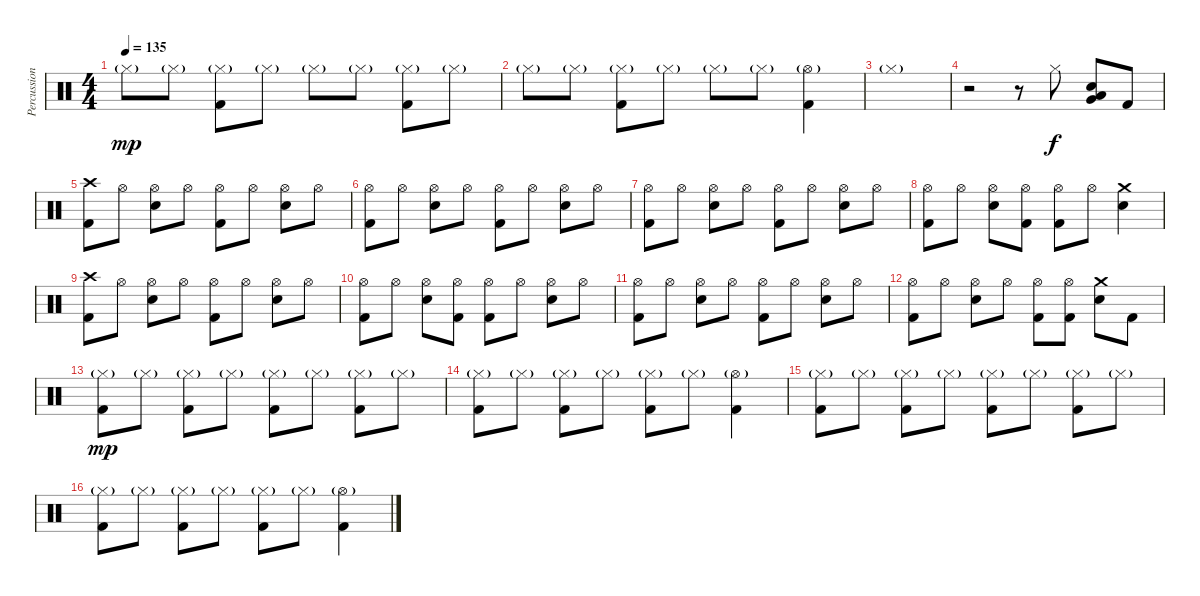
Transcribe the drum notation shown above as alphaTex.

\track ("Percussion" "Percussion") {instrument percussion}
\staff {score}
\articulation defaults
\ts (4 4)
\tempo 135
\clef neutral
\ks c "Hi-Hat (closed)"{g}.8{dy mp} "Hi-Hat (closed)"{g}.8
("Hi-Hat (closed)"{g} "Kick (hit) 2").8 "Hi-Hat (closed)"{g}.8 "Hi-Hat (closed)"{g}.8 "Hi-Hat (closed)"{g}.8 ("Hi-Hat (closed)"{g} "Kick (hit) 2").8 "Hi-Hat (closed)"{g}.8 |
"Hi-Hat (closed)"{g}.8 "Hi-Hat (closed)"{g}.8 ("Hi-Hat (closed)"{g} "Kick (hit) 2").8 "Hi-Hat (closed)"{g}.8 "Hi-Hat (closed)"{g}.8 "Hi-Hat (closed)"{g}.8 ("Hi-Hat (open)"{g} "Kick (hit) 2").4 |
"Hi-Hat (closed)"{g}.1 |
r.2 r.8 "Hi-Hat (closed)".8{dy f} ("Electric Snare (hit)" "Very Low Tom (hit)" "Low Tom (hit)").8 "Kick (hit) 2".8 |
("Crash high (hit)" "Kick (hit) 2").8 "Hi-Hat (open)".8 ("Hi-Hat (open)" "Electric Snare (hit)").8 "Hi-Hat (open)".8 ("Hi-Hat (open)" "Kick (hit) 2").8 "Hi-Hat (open)".8 ("Hi-Hat (open)" "Electric Snare (hit)").8 "Hi-Hat (open)".8 |
("Hi-Hat (open)" "Kick (hit) 2").8 "Hi-Hat (open)".8 ("Hi-Hat (open)" "Electric Snare (hit)").8 "Hi-Hat (open)".8 ("Hi-Hat (open)" "Kick (hit) 2").8 "Hi-Hat (open)".8 ("Hi-Hat (open)" "Electric Snare (hit)").8 "Hi-Hat (open)".8 |
("Hi-Hat (open)" "Kick (hit) 2").8 "Hi-Hat (open)".8 ("Hi-Hat (open)" "Electric Snare (hit)").8 "Hi-Hat (open)".8 ("Hi-Hat (open)" "Kick (hit) 2").8 "Hi-Hat (open)".8 ("Hi-Hat (open)" "Electric Snare (hit)").8 "Hi-Hat (open)".8 |
("Hi-Hat (open)" "Kick (hit) 2").8 "Hi-Hat (open)".8 ("Hi-Hat (open)" "Electric Snare (hit)").8 ("Hi-Hat (open)" "Kick (hit) 2").8 ("Hi-Hat (open)" "Kick (hit) 2").8 "Hi-Hat (open)".8 ("Crash medium (hit)" "Electric Snare (hit)").4 |
("Crash high (hit)" "Kick (hit) 2").8 "Hi-Hat (open)".8 ("Hi-Hat (open)" "Electric Snare (hit)").8 "Hi-Hat (open)".8 ("Hi-Hat (open)" "Kick (hit) 2").8 "Hi-Hat (open)".8 ("Hi-Hat (open)" "Electric Snare (hit)").8 "Hi-Hat (open)".8 |
("Hi-Hat (open)" "Kick (hit) 2").8 "Hi-Hat (open)".8 ("Hi-Hat (open)" "Electric Snare (hit)").8 ("Hi-Hat (open)" "Kick (hit) 2").8 ("Hi-Hat (open)" "Kick (hit) 2").8 "Hi-Hat (open)".8 ("Hi-Hat (open)" "Electric Snare (hit)").8 "Hi-Hat (open)".8 |
("Hi-Hat (open)" "Kick (hit) 2").8 "Hi-Hat (open)".8 ("Hi-Hat (open)" "Electric Snare (hit)").8 "Hi-Hat (open)".8 ("Hi-Hat (open)" "Kick (hit) 2").8 "Hi-Hat (open)".8 ("Hi-Hat (open)" "Electric Snare (hit)").8 "Hi-Hat (open)".8 |
("Hi-Hat (open)" "Kick (hit) 2").8 "Hi-Hat (open)".8 ("Hi-Hat (open)" "Electric Snare (hit)").8 "Hi-Hat (open)".8 ("Hi-Hat (open)" "Kick (hit) 2").8 ("Hi-Hat (open)" "Kick (hit) 2").8 ("Crash medium (hit)" "Electric Snare (hit)").8 "Kick (hit) 2".8 |
("Hi-Hat (closed)"{g} "Kick (hit) 2").8{dy mp} "Hi-Hat (closed)"{g}.8 ("Hi-Hat (closed)"{g} "Kick (hit) 2").8 "Hi-Hat (closed)"{g}.8 ("Hi-Hat (closed)"{g} "Kick (hit) 2").8 "Hi-Hat (closed)"{g}.8 ("Hi-Hat (closed)"{g} "Kick (hit) 2").8 "Hi-Hat (closed)"{g}.8 |
("Hi-Hat (closed)"{g} "Kick (hit) 2").8 "Hi-Hat (closed)"{g}.8 ("Hi-Hat (closed)"{g} "Kick (hit) 2").8 "Hi-Hat (closed)"{g}.8 ("Hi-Hat (closed)"{g} "Kick (hit) 2").8 "Hi-Hat (closed)"{g}.8 ("Hi-Hat (open)"{g} "Kick (hit) 2").4 |
("Hi-Hat (closed)"{g} "Kick (hit) 2").8 "Hi-Hat (closed)"{g}.8 ("Hi-Hat (closed)"{g} "Kick (hit) 2").8 "Hi-Hat (closed)"{g}.8 ("Hi-Hat (closed)"{g} "Kick (hit) 2").8 "Hi-Hat (closed)"{g}.8 ("Hi-Hat (closed)"{g} "Kick (hit) 2").8 "Hi-Hat (closed)"{g}.8 |
("Hi-Hat (closed)"{g} "Kick (hit) 2").8 "Hi-Hat (closed)"{g}.8 ("Hi-Hat (closed)"{g} "Kick (hit) 2").8 "Hi-Hat (closed)"{g}.8 ("Hi-Hat (closed)"{g} "Kick (hit) 2").8 "Hi-Hat (closed)"{g}.8 ("Hi-Hat (open)"{g} "Kick (hit) 2").4
